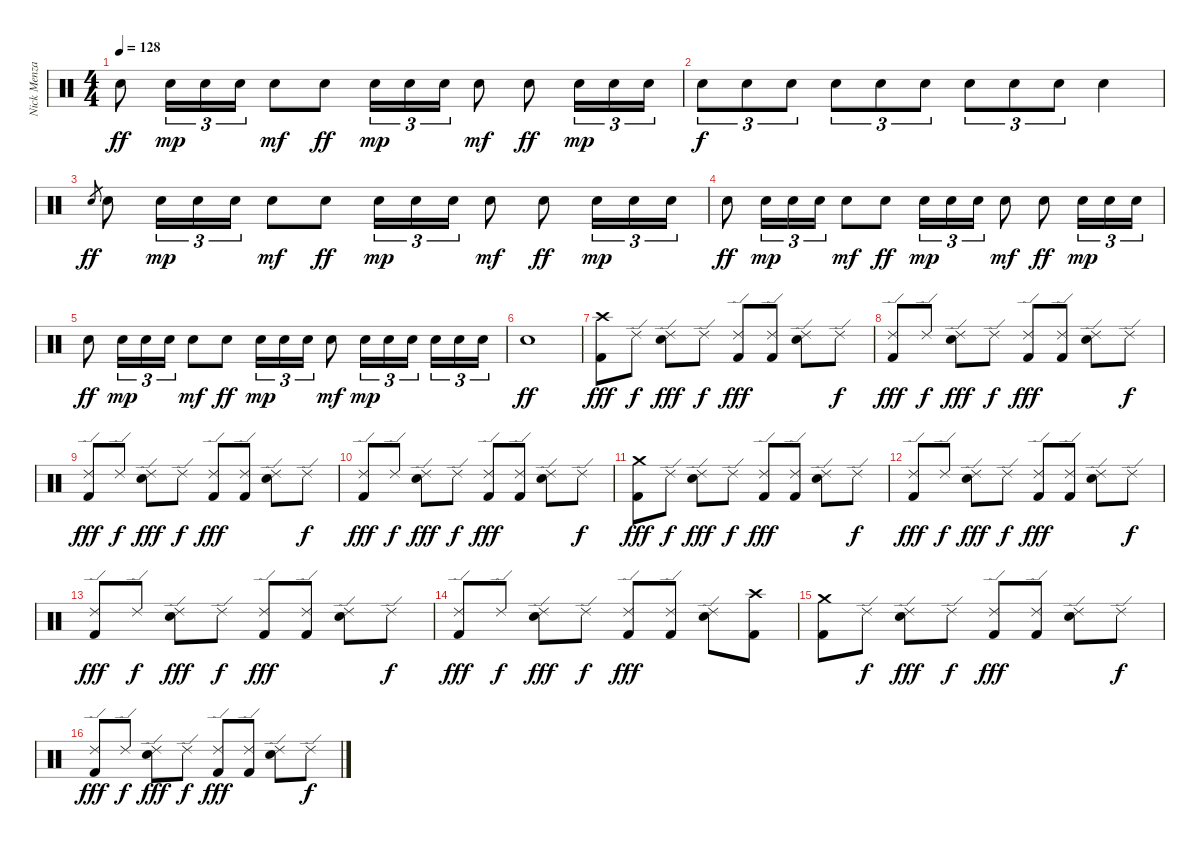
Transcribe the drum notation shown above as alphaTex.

\track ("Nick Menza" "Nick Menza") {instrument percussion}
\staff {score}
\articulation defaults
\ts (4 4)
\tempo 128
\clef neutral
\ks c "Electric Snare (hit)".8{dy ff} "Electric Snare (hit)".16{tu (3 2) dy mp} "Electric Snare (hit)".16{tu (3 2)} "Electric Snare (hit)".16{tu (3 2)} "Electric Snare (hit)".8{dy mf} "Electric Snare (hit)".8{dy ff} "Electric Snare (hit)".16{tu (3 2) dy mp} "Electric Snare (hit)".16{tu (3 2)} "Electric Snare (hit)".16{tu (3 2)} "Electric Snare (hit)".8{dy mf} "Electric Snare (hit)".8{dy ff} "Electric Snare (hit)".16{tu (3 2) dy mp} "Electric Snare (hit)".16{tu (3 2)} "Electric Snare (hit)".16{tu (3 2)}
|
"Electric Snare (hit)".8{tu (3 2) dy f} "Electric Snare (hit)".8{tu (3 2)} "Electric Snare (hit)".8{tu (3 2)} "Electric Snare (hit)".8{tu (3 2)} "Electric Snare (hit)".8{tu (3 2)} "Electric Snare (hit)".8{tu (3 2)} "Electric Snare (hit)".8{tu (3 2)} "Electric Snare (hit)".8{tu (3 2)} "Electric Snare (hit)".8{tu (3 2)} "Electric Snare (hit)".4 |
"Electric Snare (hit)".8{gr dy ff} "Electric Snare (hit)".8 "Electric Snare (hit)".16{tu (3 2) dy mp} "Electric Snare (hit)".16{tu (3 2)} "Electric Snare (hit)".16{tu (3 2)} "Electric Snare (hit)".8{dy mf} "Electric Snare (hit)".8{dy ff} "Electric Snare (hit)".16{tu (3 2) dy mp} "Electric Snare (hit)".16{tu (3 2)} "Electric Snare (hit)".16{tu (3 2)} "Electric Snare (hit)".8{dy mf} "Electric Snare (hit)".8{dy ff} "Electric Snare (hit)".16{tu (3 2) dy mp} "Electric Snare (hit)".16{tu (3 2)} "Electric Snare (hit)".16{tu (3 2)} |
"Electric Snare (hit)".8{dy ff} "Electric Snare (hit)".16{tu (3 2) dy mp} "Electric Snare (hit)".16{tu (3 2)} "Electric Snare (hit)".16{tu (3 2)} "Electric Snare (hit)".8{dy mf} "Electric Snare (hit)".8{dy ff} "Electric Snare (hit)".16{tu (3 2) dy mp} "Electric Snare (hit)".16{tu (3 2)} "Electric Snare (hit)".16{tu (3 2)} "Electric Snare (hit)".8{dy mf} "Electric Snare (hit)".8{dy ff} "Electric Snare (hit)".16{tu (3 2) dy mp} "Electric Snare (hit)".16{tu (3 2)} "Electric Snare (hit)".16{tu (3 2)} |
"Electric Snare (hit)".8{dy ff} "Electric Snare (hit)".16{tu (3 2) dy mp} "Electric Snare (hit)".16{tu (3 2)} "Electric Snare (hit)".16{tu (3 2)} "Electric Snare (hit)".8{dy mf} "Electric Snare (hit)".8{dy ff} "Electric Snare (hit)".16{tu (3 2) dy mp} "Electric Snare (hit)".16{tu (3 2)} "Electric Snare (hit)".16{tu (3 2)} "Electric Snare (hit)".8{dy mf} "Electric Snare (hit)".16{tu (3 2) dy mp} "Electric Snare (hit)".16{tu (3 2)} "Electric Snare (hit)".16{tu (3 2)} "Electric Snare (hit)".16{tu (3 2)} "Electric Snare (hit)".16{tu (3 2)} "Electric Snare (hit)".16{tu (3 2)} |
"Electric Snare (hit)".1{dy ff} |
("Crash high (hit)" "Kick (hit) 2").8{dy fff} "Ride (edge) 2".8{dy f} ("Ride (edge) 2" "Electric Snare (hit)").8{dy fff} "Ride (edge) 2".8{dy f} ("Ride (edge) 2" "Kick (hit) 2").8{dy fff} ("Ride (edge) 2" "Kick (hit) 2").8 ("Ride (edge) 2" "Electric Snare (hit)").8 "Ride (edge) 2".8{dy f} |
("Ride (edge) 2" "Kick (hit) 2").8{dy fff} "Ride (edge) 2".8{dy f} ("Ride (edge) 2" "Electric Snare (hit)").8{dy fff} "Ride (edge) 2".8{dy f} ("Ride (edge) 2" "Kick (hit) 2").8{dy fff} ("Ride (edge) 2" "Kick (hit) 2").8 ("Ride (edge) 2" "Electric Snare (hit)").8 "Ride (edge) 2".8{dy f} |
("Ride (edge) 2" "Kick (hit) 2").8{dy fff} "Ride (edge) 2".8{dy f} ("Ride (edge) 2" "Electric Snare (hit)").8{dy fff} "Ride (edge) 2".8{dy f} ("Ride (edge) 2" "Kick (hit) 2").8{dy fff} ("Ride (edge) 2" "Kick (hit) 2").8 ("Ride (edge) 2" "Electric Snare (hit)").8 "Ride (edge) 2".8{dy f} |
("Ride (edge) 2" "Kick (hit) 2").8{dy fff} "Ride (edge) 2".8{dy f} ("Ride (edge) 2" "Electric Snare (hit)").8{dy fff} "Ride (edge) 2".8{dy f} ("Ride (edge) 2" "Kick (hit) 2").8{dy fff} ("Ride (edge) 2" "Kick (hit) 2").8 ("Ride (edge) 2" "Electric Snare (hit)").8 "Ride (edge) 2".8{dy f} |
("Crash medium (hit)" "Kick (hit) 2").8{dy fff} "Ride (edge) 2".8{dy f} ("Ride (edge) 2" "Electric Snare (hit)").8{dy fff} "Ride (edge) 2".8{dy f} ("Ride (edge) 2" "Kick (hit) 2").8{dy fff} ("Ride (edge) 2" "Kick (hit) 2").8 ("Ride (edge) 2" "Electric Snare (hit)").8 "Ride (edge) 2".8{dy f} |
("Ride (edge) 2" "Kick (hit) 2").8{dy fff} "Ride (edge) 2".8{dy f} ("Ride (edge) 2" "Electric Snare (hit)").8{dy fff} "Ride (edge) 2".8{dy f} ("Ride (edge) 2" "Kick (hit) 2").8{dy fff} ("Ride (edge) 2" "Kick (hit) 2").8 ("Ride (edge) 2" "Electric Snare (hit)").8 "Ride (edge) 2".8{dy f} |
("Ride (edge) 2" "Kick (hit) 2").8{dy fff} "Ride (edge) 2".8{dy f} ("Ride (edge) 2" "Electric Snare (hit)").8{dy fff} "Ride (edge) 2".8{dy f} ("Ride (edge) 2" "Kick (hit) 2").8{dy fff} ("Ride (edge) 2" "Kick (hit) 2").8 ("Ride (edge) 2" "Electric Snare (hit)").8 "Ride (edge) 2".8{dy f} |
("Ride (edge) 2" "Kick (hit) 2").8{dy fff} "Ride (edge) 2".8{dy f} ("Ride (edge) 2" "Electric Snare (hit)").8{dy fff} "Ride (edge) 2".8{dy f} ("Ride (edge) 2" "Kick (hit) 2").8{dy fff} ("Ride (edge) 2" "Kick (hit) 2").8 ("Ride (edge) 2" "Electric Snare (hit)").8 ("Crash high (hit)" "Kick (hit) 2").8 |
("Crash medium (hit)" "Kick (hit) 2").8 "Ride (edge) 2".8{dy f} ("Ride (edge) 2" "Electric Snare (hit)").8{dy fff} "Ride (edge) 2".8{dy f} ("Ride (edge) 2" "Kick (hit) 2").8{dy fff} ("Ride (edge) 2" "Kick (hit) 2").8 ("Ride (edge) 2" "Electric Snare (hit)").8 "Ride (edge) 2".8{dy f} |
("Ride (edge) 2" "Kick (hit) 2").8{dy fff} "Ride (edge) 2".8{dy f} ("Ride (edge) 2" "Electric Snare (hit)").8{dy fff} "Ride (edge) 2".8{dy f} ("Ride (edge) 2" "Kick (hit) 2").8{dy fff} ("Ride (edge) 2" "Kick (hit) 2").8 ("Ride (edge) 2" "Electric Snare (hit)").8 "Ride (edge) 2".8{dy f}
